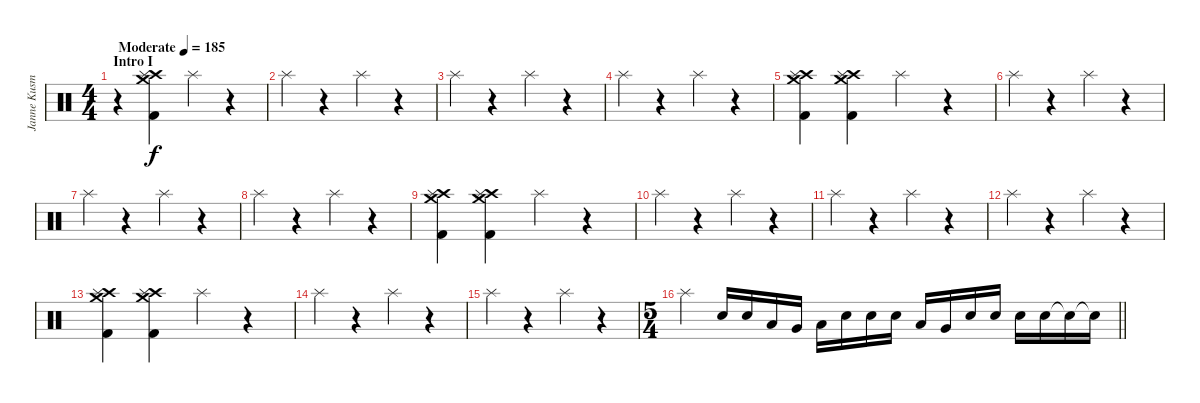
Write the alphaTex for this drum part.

\track ("Janne Kusmin" "Janne Kusm") {instrument percussion}
\staff {score}
\articulation defaults
\ts (4 4)
\section ("" "Intro I")
\tempo (185 "Moderate")
\clef neutral
\ks c
r.4{dy f} ("Crash medium (hit)" "Crash high (hit)" "Splash (hit)" "Kick (hit) 2").4 "Splash (hit)".4 r.4 |
"Splash (hit)".4 r.4 "Splash (hit)".4 r.4 |
"Splash (hit)".4 r.4 "Splash (hit)".4 r.4 |
"Splash (hit)".4 r.4 "Splash (hit)".4 r.4 |
("Crash medium (hit)" "Crash high (hit)" "Splash (hit)" "Kick (hit) 2").4 ("Crash medium (hit)" "Crash high (hit)" "Splash (hit)" "Kick (hit) 2").4 "Splash (hit)".4 r.4 |
"Splash (hit)".4 r.4 "Splash (hit)".4 r.4 |
"Splash (hit)".4 r.4 "Splash (hit)".4 r.4 |
"Splash (hit)".4 r.4 "Splash (hit)".4 r.4 |
("Crash medium (hit)" "Crash high (hit)" "Splash (hit)" "Kick (hit) 2").4 ("Crash medium (hit)" "Crash high (hit)" "Splash (hit)" "Kick (hit) 2").4 "Splash (hit)".4 r.4 |
"Splash (hit)".4 r.4 "Splash (hit)".4 r.4 |
"Splash (hit)".4 r.4 "Splash (hit)".4 r.4 |
"Splash (hit)".4 r.4 "Splash (hit)".4 r.4 |
("Crash medium (hit)" "Crash high (hit)" "Splash (hit)" "Kick (hit) 2").4 ("Crash medium (hit)" "Crash high (hit)" "Splash (hit)" "Kick (hit) 2").4 "Splash (hit)".4 r.4 |
"Splash (hit)".4 r.4 "Splash (hit)".4 r.4 |
"Splash (hit)".4 r.4 "Splash (hit)".4 r.4 |
\ts (5 4)
\barLineRight lightlight "Splash (hit)".4 "Electric Snare (hit)".16 "Electric Snare (hit)".16 "Low Tom (hit)".16 "Very Low Tom (hit)".16 "Low Tom (hit)".16 "Electric Snare (hit)".16 "Electric Snare (hit)".16 "Electric Snare (hit)".16 "Low Tom (hit)".16 "Very Low Tom (hit)".16 "Electric Snare (hit)".16 "Electric Snare (hit)".16 "Electric Snare (hit)".16 "Electric Snare (hit)".16 "Snare (hit)"{t}.16 "Snare (hit)"{t}.16
